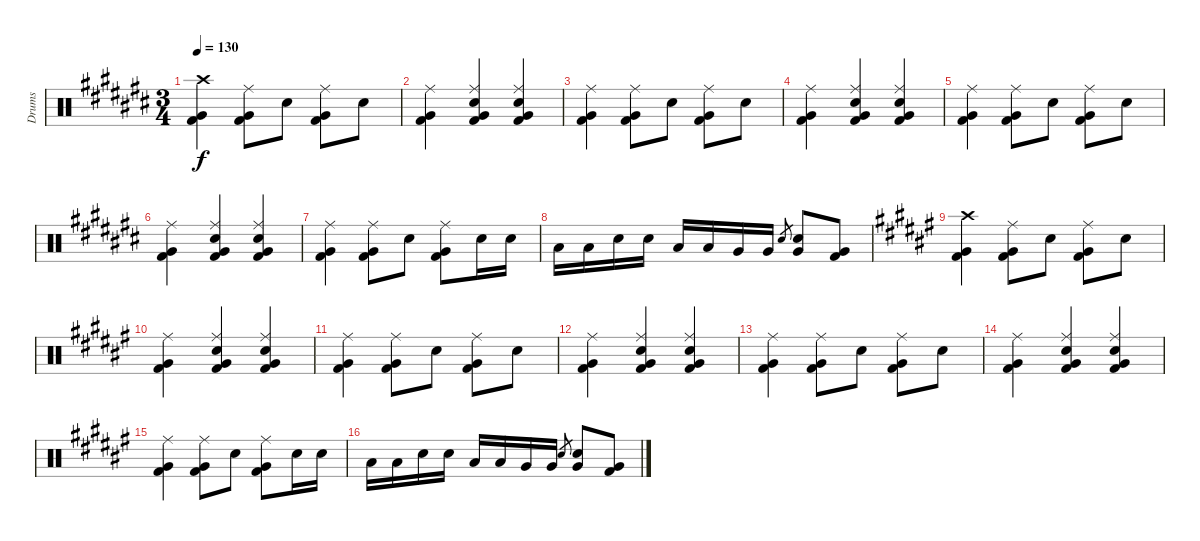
\track ("Drums" "Drums") {instrument percussion}
\staff {score}
\articulation defaults
\ts (3 4)
\tempo 130
\clef neutral
\ks c#
("Crash high (hit)" "Very Low Tom (hit)" "Kick (hit) 2").4{dy f} ("Ride (middle)" "Very Low Tom (hit)" "Kick (hit) 2").8 "Electric Snare (hit)".8 ("Ride (middle)" "Very Low Tom (hit)" "Kick (hit) 2").8 "Electric Snare (hit)".8 |
("Ride (middle)" "Very Low Tom (hit)" "Kick (hit) 2").4 ("Ride (middle)" "Electric Snare (hit)" "Very Low Tom (hit)" "Kick (hit) 2").4 ("Ride (middle)" "Electric Snare (hit)" "Very Low Tom (hit)" "Kick (hit) 2").4 |
("Ride (middle)" "Very Low Tom (hit)" "Kick (hit) 2").4 ("Ride (middle)" "Very Low Tom (hit)" "Kick (hit) 2").8 "Electric Snare (hit)".8 ("Ride (middle)" "Very Low Tom (hit)" "Kick (hit) 2").8 "Electric Snare (hit)".8 |
("Ride (middle)" "Very Low Tom (hit)" "Kick (hit) 2").4 ("Ride (middle)" "Electric Snare (hit)" "Very Low Tom (hit)" "Kick (hit) 2").4 ("Ride (middle)" "Electric Snare (hit)" "Very Low Tom (hit)" "Kick (hit) 2").4 |
("Ride (middle)" "Very Low Tom (hit)" "Kick (hit) 2").4 ("Ride (middle)" "Very Low Tom (hit)" "Kick (hit) 2").8 "Electric Snare (hit)".8 ("Ride (middle)" "Very Low Tom (hit)" "Kick (hit) 2").8 "Electric Snare (hit)".8 |
("Ride (middle)" "Very Low Tom (hit)" "Kick (hit) 2").4 ("Ride (middle)" "Electric Snare (hit)" "Very Low Tom (hit)" "Kick (hit) 2").4 ("Ride (middle)" "Electric Snare (hit)" "Very Low Tom (hit)" "Kick (hit) 2").4 |
("Ride (middle)" "Very Low Tom (hit)" "Kick (hit) 2").4 ("Ride (middle)" "Very Low Tom (hit)" "Kick (hit) 2").8 "Electric Snare (hit)".8 ("Ride (middle)" "Very Low Tom (hit)" "Kick (hit) 2").8 "Electric Snare (hit)".16 "Electric Snare (hit)".16 |
"Low Tom (hit)".16 "Low Tom (hit)".16 "Electric Snare (hit)".16 "Electric Snare (hit)".16 "Low Tom (hit)".16 "Low Tom (hit)".16 "Very Low Tom (hit)".16 "Very Low Tom (hit)".16 "Electric Snare (hit)".8{gr} ("Electric Snare (hit)" "Very Low Tom (hit)").8 ("Very Low Tom (hit)" "Kick (hit) 2").8 |
\ks f#
("Crash high (hit)" "Very Low Tom (hit)" "Kick (hit) 2").4 ("Ride (middle)" "Very Low Tom (hit)" "Kick (hit) 2").8 "Electric Snare (hit)".8 ("Ride (middle)" "Very Low Tom (hit)" "Kick (hit) 2").8 "Electric Snare (hit)".8 |
("Ride (middle)" "Very Low Tom (hit)" "Kick (hit) 2").4 ("Ride (middle)" "Electric Snare (hit)" "Very Low Tom (hit)" "Kick (hit) 2").4 ("Ride (middle)" "Electric Snare (hit)" "Very Low Tom (hit)" "Kick (hit) 2").4 |
("Ride (middle)" "Very Low Tom (hit)" "Kick (hit) 2").4 ("Ride (middle)" "Very Low Tom (hit)" "Kick (hit) 2").8 "Electric Snare (hit)".8 ("Ride (middle)" "Very Low Tom (hit)" "Kick (hit) 2").8 "Electric Snare (hit)".8 |
("Ride (middle)" "Very Low Tom (hit)" "Kick (hit) 2").4 ("Ride (middle)" "Electric Snare (hit)" "Very Low Tom (hit)" "Kick (hit) 2").4 ("Ride (middle)" "Electric Snare (hit)" "Very Low Tom (hit)" "Kick (hit) 2").4 |
("Ride (middle)" "Very Low Tom (hit)" "Kick (hit) 2").4 ("Ride (middle)" "Very Low Tom (hit)" "Kick (hit) 2").8 "Electric Snare (hit)".8 ("Ride (middle)" "Very Low Tom (hit)" "Kick (hit) 2").8 "Electric Snare (hit)".8 |
("Ride (middle)" "Very Low Tom (hit)" "Kick (hit) 2").4 ("Ride (middle)" "Electric Snare (hit)" "Very Low Tom (hit)" "Kick (hit) 2").4 ("Ride (middle)" "Electric Snare (hit)" "Very Low Tom (hit)" "Kick (hit) 2").4 |
("Ride (middle)" "Very Low Tom (hit)" "Kick (hit) 2").4 ("Ride (middle)" "Very Low Tom (hit)" "Kick (hit) 2").8 "Electric Snare (hit)".8 ("Ride (middle)" "Very Low Tom (hit)" "Kick (hit) 2").8 "Electric Snare (hit)".16 "Electric Snare (hit)".16 |
"Low Tom (hit)".16 "Low Tom (hit)".16 "Electric Snare (hit)".16 "Electric Snare (hit)".16 "Low Tom (hit)".16 "Low Tom (hit)".16 "Very Low Tom (hit)".16 "Very Low Tom (hit)".16 "Electric Snare (hit)".8{gr} ("Electric Snare (hit)" "Very Low Tom (hit)").8 ("Very Low Tom (hit)" "Kick (hit) 2").8
